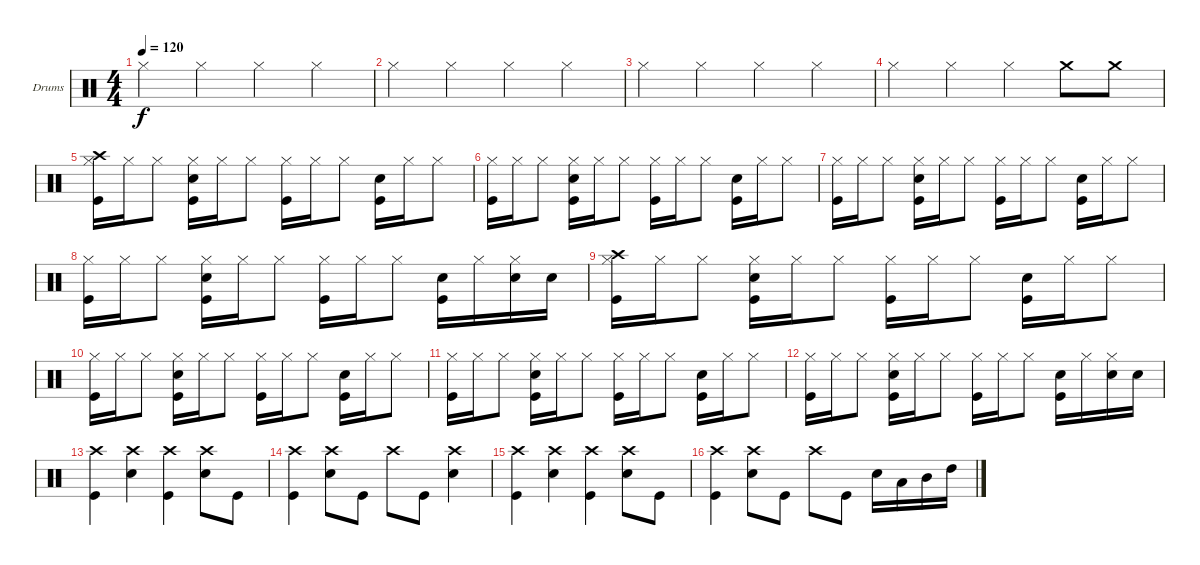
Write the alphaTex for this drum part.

\defaultSystemsLayout 4
\bracketExtendMode groupsimilarinstruments
\firstSystemTrackNameOrientation horizontal
\otherSystemsTrackNameOrientation horizontal
\track ("Drumkit" "Drums") {instrument percussion}
\staff {score}
\articulation defaults
\ts (4 4)
\tempo 120
\clef neutral
\scale
0.474178
\ks c "Hi-Hat (closed)".4{dy f} "Hi-Hat (closed)".4 "Hi-Hat (closed)".4 "Hi-Hat (closed)".4
|
\scale
0.262911 "Hi-Hat (closed)".4 "Hi-Hat (closed)".4 "Hi-Hat (closed)".4 "Hi-Hat (closed)".4 |
\scale
0.262911 "Hi-Hat (closed)".4 "Hi-Hat (closed)".4 "Hi-Hat (closed)".4 "Hi-Hat (closed)".4 |
\scale
0.333333 "Hi-Hat (closed)".4 "Hi-Hat (closed)".4 "Hi-Hat (closed)".4 "Crash medium (hit)".8 "Crash medium (hit)".8 |
\scale
0.333333 ("Hi-Hat (closed)" "Crash high (hit)" "Kick (hit)").16 "Hi-Hat (closed)".16 "Hi-Hat (closed)".8 ("Hi-Hat (closed)" "Snare (hit) 2" "Kick (hit)").16 "Hi-Hat (closed)".16 "Hi-Hat (closed)".8 ("Hi-Hat (closed)" "Kick (hit)").16 "Hi-Hat (closed)".16 "Hi-Hat (closed)".8 ("Snare (hit) 2" "Kick (hit)").16 "Hi-Hat (closed)".16 "Hi-Hat (closed)".8 |
\scale
0.333333 ("Hi-Hat (closed)" "Kick (hit)").16 "Hi-Hat (closed)".16 "Hi-Hat (closed)".8 ("Hi-Hat (closed)" "Snare (hit) 2" "Kick (hit)").16 "Hi-Hat (closed)".16 "Hi-Hat (closed)".8 ("Hi-Hat (closed)" "Kick (hit)").16 "Hi-Hat (closed)".16 "Hi-Hat (closed)".8 ("Snare (hit) 2" "Kick (hit)").16 "Hi-Hat (closed)".16 "Hi-Hat (closed)".8 |
("Hi-Hat (closed)" "Kick (hit)").16 "Hi-Hat (closed)".16 "Hi-Hat (closed)".8 ("Hi-Hat (closed)" "Snare (hit) 2" "Kick (hit)").16 "Hi-Hat (closed)".16 "Hi-Hat (closed)".8 ("Hi-Hat (closed)" "Kick (hit)").16 "Hi-Hat (closed)".16 "Hi-Hat (closed)".8 ("Snare (hit) 2" "Kick (hit)").16 "Hi-Hat (closed)".16 "Hi-Hat (closed)".8 |
("Hi-Hat (closed)" "Kick (hit)").16 "Hi-Hat (closed)".16 "Hi-Hat (closed)".8 ("Hi-Hat (closed)" "Snare (hit) 2" "Kick (hit)").16 "Hi-Hat (closed)".16 "Hi-Hat (closed)".8 ("Hi-Hat (closed)" "Kick (hit)").16 "Hi-Hat (closed)".16 "Hi-Hat (closed)".8 ("Snare (hit) 2" "Kick (hit)").16 "Hi-Hat (closed)".16 ("Hi-Hat (closed)" "Snare (hit) 2").16 "Snare (hit) 2".16 |
("Hi-Hat (closed)" "Crash high (hit)" "Kick (hit)").16 "Hi-Hat (closed)".16 "Hi-Hat (closed)".8 ("Hi-Hat (closed)" "Snare (hit) 2" "Kick (hit)").16 "Hi-Hat (closed)".16 "Hi-Hat (closed)".8 ("Hi-Hat (closed)" "Kick (hit)").16 "Hi-Hat (closed)".16 "Hi-Hat (closed)".8 ("Snare (hit) 2" "Kick (hit)").16 "Hi-Hat (closed)".16 "Hi-Hat (closed)".8 |
("Hi-Hat (closed)" "Kick (hit)").16 "Hi-Hat (closed)".16 "Hi-Hat (closed)".8 ("Hi-Hat (closed)" "Snare (hit) 2" "Kick (hit)").16 "Hi-Hat (closed)".16 "Hi-Hat (closed)".8 ("Hi-Hat (closed)" "Kick (hit)").16 "Hi-Hat (closed)".16 "Hi-Hat (closed)".8 ("Snare (hit) 2" "Kick (hit)").16 "Hi-Hat (closed)".16 "Hi-Hat (closed)".8 |
("Hi-Hat (closed)" "Kick (hit)").16 "Hi-Hat (closed)".16 "Hi-Hat (closed)".8 ("Hi-Hat (closed)" "Snare (hit) 2" "Kick (hit)").16 "Hi-Hat (closed)".16 "Hi-Hat (closed)".8 ("Hi-Hat (closed)" "Kick (hit)").16 "Hi-Hat (closed)".16 "Hi-Hat (closed)".8 ("Snare (hit) 2" "Kick (hit)").16 "Hi-Hat (closed)".16 "Hi-Hat (closed)".8 |
("Hi-Hat (closed)" "Kick (hit)").16 "Hi-Hat (closed)".16 "Hi-Hat (closed)".8 ("Hi-Hat (closed)" "Snare (hit) 2" "Kick (hit)").16 "Hi-Hat (closed)".16 "Hi-Hat (closed)".8 ("Hi-Hat (closed)" "Kick (hit)").16 "Hi-Hat (closed)".16 "Hi-Hat (closed)".8 ("Snare (hit) 2" "Kick (hit)").16 "Hi-Hat (closed)".16 ("Hi-Hat (closed)" "Snare (hit) 2").16 "Snare (hit) 2".16 |
("Crash high (hit)" "Kick (hit)").4 ("Crash high (hit)" "Snare (hit) 2").4 ("Crash high (hit)" "Kick (hit)").4 ("Crash high (hit)" "Snare (hit) 2").8 "Kick (hit)".8 |
("Crash high (hit)" "Kick (hit)").4 ("Crash high (hit)" "Snare (hit) 2").8 "Kick (hit)".8 "Crash high (hit)".8 "Kick (hit)".8 ("Crash high (hit)" "Snare (hit) 2").4 |
("Crash high (hit)" "Kick (hit)").4 ("Crash high (hit)" "Snare (hit) 2").4 ("Crash high (hit)" "Kick (hit)").4 ("Crash high (hit)" "Snare (hit) 2").8 "Kick (hit)".8 |
("Crash high (hit)" "Kick (hit)").4 ("Crash high (hit)" "Snare (hit) 2").8 "Kick (hit)".8 "Crash high (hit)".8 "Kick (hit)".8 "Snare (hit) 2".16 "Low Tom (hit)".16 "Mid Tom (hit)".16 "High Tom (hit)".16
